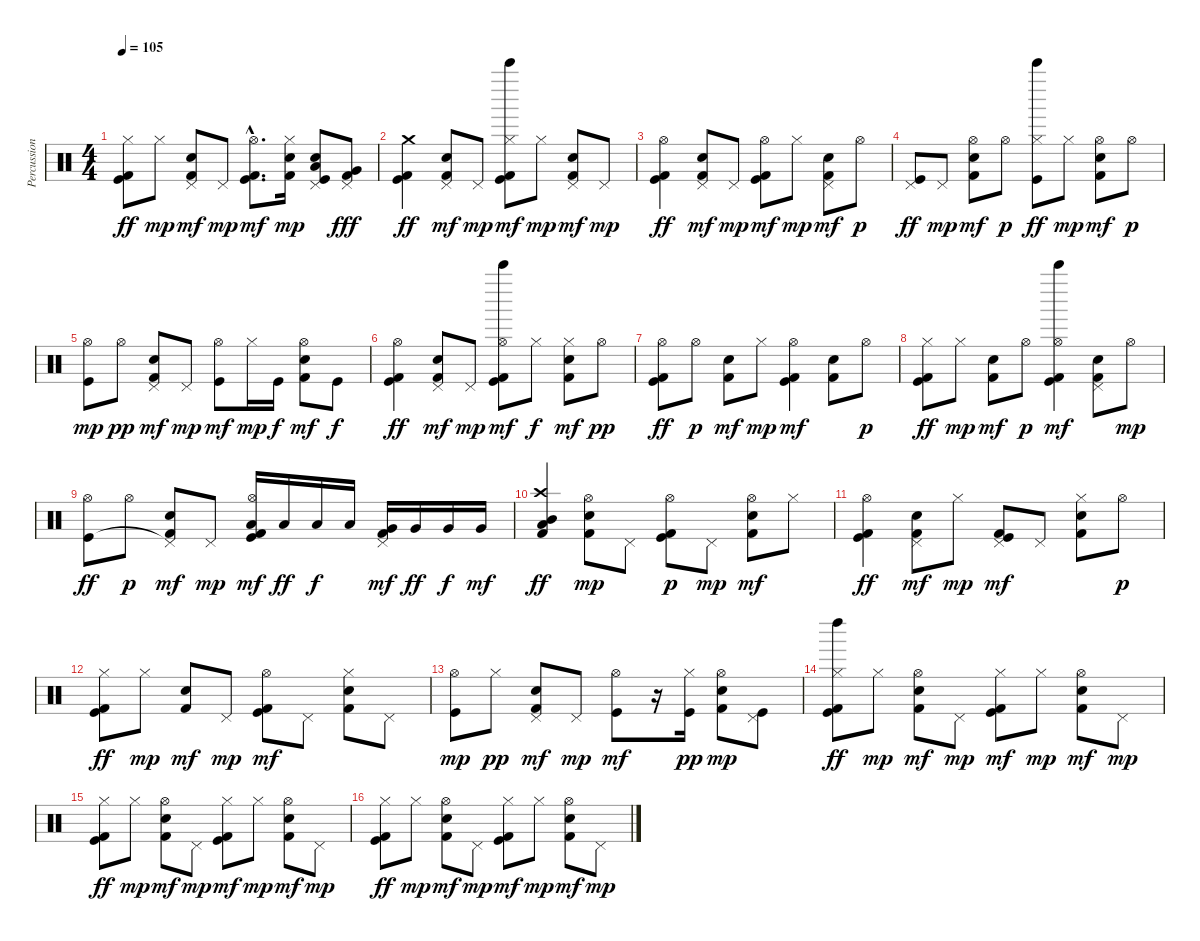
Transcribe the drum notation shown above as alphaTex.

\track ("Percussion" "Percussion") {instrument percussion}
\staff {score}
\articulation defaults
\ts (4 4)
\tempo 105
\clef neutral
\ks c
("Hi-Hat (closed)" "Kick (hit)" "Kick (hit) 2").8{dy ff} "Hi-Hat (closed)".8{dy mp} ("Electric Snare (hit)" "Pedal Hi-Hat (hit)" "Kick (hit) 2").8{dy mf} "Pedal Hi-Hat (hit)".8{dy mp} ("Hi-Hat (open)"{hac} "Kick (hit)"{hac} "Kick (hit) 2"{hac}).8{d dy mf} ("Electric Snare (hit)" "Hi-Hat (closed)" "Kick (hit) 2").16{dy mp} ("Electric Snare (hit)" "Pedal Hi-Hat (hit)" "Low Tom (hit)" "Kick (hit)").8 ("Pedal Hi-Hat (hit)" "Very Low Tom (hit)" "Kick (hit) 2").8{dy fff} |
("Crash medium (hit)" "Kick (hit)" "Kick (hit) 2").4{dy ff} ("Electric Snare (hit)" "Pedal Hi-Hat (hit)" "Kick (hit) 2").8{dy mf} "Pedal Hi-Hat (hit)".8{dy mp} ("Bell Tree (hit)" "Hi-Hat (closed)" "Kick (hit)" "Kick (hit) 2").8{dy mf} "Hi-Hat (closed)".8{dy mp} ("Electric Snare (hit)" "Pedal Hi-Hat (hit)" "Kick (hit) 2").8{dy mf} "Pedal Hi-Hat (hit)".8{dy mp} |
("Hi-Hat (open)" "Kick (hit)" "Kick (hit) 2").4{dy ff} ("Electric Snare (hit)" "Pedal Hi-Hat (hit)" "Kick (hit) 2").8{dy mf} "Pedal Hi-Hat (hit)".8{dy mp} ("Hi-Hat (open)" "Kick (hit)" "Kick (hit) 2").8{dy mf} "Hi-Hat (closed)".8{dy mp} ("Electric Snare (hit)" "Pedal Hi-Hat (hit)" "Kick (hit) 2").8{dy mf} "Hi-Hat (open)".8{dy p} |
("Pedal Hi-Hat (hit)" "Kick (hit)").8{dy ff} "Pedal Hi-Hat (hit)".8{dy mp} ("Electric Snare (hit)" "Hi-Hat (open)" "Kick (hit) 2").8{dy mf} "Hi-Hat (open)".8{dy p} ("Bell Tree (hit)" "Hi-Hat (closed)" "Kick (hit)").8{dy ff} "Hi-Hat (closed)".8{dy mp} ("Electric Snare (hit)" "Hi-Hat (open)" "Kick (hit) 2").8{dy mf} "Hi-Hat (open)".8{dy p} |
("Hi-Hat (open)" "Kick (hit)").8{dy mp} "Hi-Hat (open)".8{dy pp} ("Electric Snare (hit)" "Pedal Hi-Hat (hit)" "Kick (hit) 2").8{dy mf} "Pedal Hi-Hat (hit)".8{dy mp} ("Hi-Hat (open)" "Kick (hit)").8{dy mf} "Hi-Hat (closed)".16{dy mp} "Kick (hit)".16{dy f} ("Electric Snare (hit)" "Hi-Hat (open)" "Kick (hit) 2").8{dy mf} "Kick (hit)".8{dy f} |
("Hi-Hat (open)" "Kick (hit)" "Kick (hit) 2").4{dy ff} ("Electric Snare (hit)" "Pedal Hi-Hat (hit)" "Kick (hit) 2").8{dy mf} "Pedal Hi-Hat (hit)".8{dy mp} ("Bell Tree (hit)" "Hi-Hat (open)" "Kick (hit)" "Kick (hit) 2").8{dy mf} "Hi-Hat (closed)".8{dy f} ("Electric Snare (hit)" "Hi-Hat (closed)" "Kick (hit) 2").8{dy mf} "Hi-Hat (open)".8{dy pp} |
("Hi-Hat (open)" "Kick (hit)" "Kick (hit) 2").8{dy ff} "Hi-Hat (open)".8{dy p} ("Electric Snare (hit)" "Kick (hit) 2").8{dy mf} "Hi-Hat (closed)".8{dy mp} ("Hi-Hat (open)" "Kick (hit)" "Kick (hit) 2").4{dy mf} ("Electric Snare (hit)" "Kick (hit) 2").8 "Hi-Hat (open)".8{dy p} |
("Hi-Hat (closed)" "Kick (hit)" "Kick (hit) 2").8{dy ff} "Hi-Hat (closed)".8{dy mp} ("Electric Snare (hit)" "Kick (hit) 2").8{dy mf} "Hi-Hat (open)".8{dy p} ("Bell Tree (hit)" "Hi-Hat (open)" "Kick (hit)" "Kick (hit) 2").4{dy mf} ("Electric Snare (hit)" "Pedal Hi-Hat (hit)" "Kick (hit) 2").8 "Hi-Hat (open)".8{dy mp} |
("Hi-Hat (open)" "Kick (hit)").8{dy ff} "Hi-Hat (open)".8{dy p} ("Electric Snare (hit)" "Pedal Hi-Hat (hit)"{t} "Kick (hit) 2").8{dy mf} "Pedal Hi-Hat (hit)".8{dy mp} ("Low Tom (hit)" "Hi-Hat (open)" "Kick (hit)" "Kick (hit) 2").16{dy mf} "Low Tom (hit)".16{dy ff} "Low Tom (hit)".16{dy f} "Low Tom (hit)".16 ("Very Low Tom (hit)" "Pedal Hi-Hat (hit)" "Kick (hit) 2").16{dy mf} "Very Low Tom (hit)".16{dy ff} "Very Low Tom (hit)".16{dy f} "Very Low Tom (hit)".16{dy mf} |
("Crash high (hit)" "Mid Tom (hit)" "Low Floor Tom (hit)" "Kick (hit) 2").4{dy ff} ("Electric Snare (hit)" "Hi-Hat (open)" "Kick (hit) 2").8{dy mp} "Pedal Hi-Hat (hit)".8 ("Hi-Hat (open)" "Kick (hit)" "Kick (hit) 2").8{dy p} "Pedal Hi-Hat (hit)".8{dy mp} ("Electric Snare (hit)" "Hi-Hat (open)" "Kick (hit) 2").8{dy mf} "Hi-Hat (closed)".8 |
("Hi-Hat (open)" "Kick (hit)" "Kick (hit) 2").4{dy ff} ("Electric Snare (hit)" "Pedal Hi-Hat (hit)" "Kick (hit) 2").8{dy mf} "Hi-Hat (closed)".8{dy mp} ("Pedal Hi-Hat (hit)" "Kick (hit)" "Kick (hit) 2").8{dy mf} "Pedal Hi-Hat (hit)".8 ("Electric Snare (hit)" "Hi-Hat (closed)" "Kick (hit) 2").8 "Hi-Hat (open)".8{dy p} |
("Hi-Hat (closed)" "Kick (hit)" "Kick (hit) 2").8{dy ff} "Hi-Hat (closed)".8{dy mp} ("Electric Snare (hit)" "Kick (hit) 2").8{dy mf} "Pedal Hi-Hat (hit)".8{dy mp} ("Hi-Hat (open)" "Kick (hit)" "Kick (hit) 2").8{dy mf} "Pedal Hi-Hat (hit)".8 ("Electric Snare (hit)" "Hi-Hat (closed)" "Kick (hit) 2").8 "Pedal Hi-Hat (hit)".8 |
("Hi-Hat (open)" "Kick (hit)").8{dy mp} "Hi-Hat (closed)".8{dy pp} ("Electric Snare (hit)" "Pedal Hi-Hat (hit)" "Kick (hit) 2").8{dy mf} "Pedal Hi-Hat (hit)".8{dy mp} ("Hi-Hat (open)" "Kick (hit)").8{dy mf} r.16 ("Hi-Hat (closed)" "Kick (hit)").16{dy pp} ("Electric Snare (hit)" "Hi-Hat (open)" "Kick (hit) 2").8{dy mp} ("Pedal Hi-Hat (hit)" "Kick (hit)").8 |
("Left Maraca (hit)" "Hi-Hat (closed)" "Kick (hit)" "Kick (hit) 2").8{dy ff} "Hi-Hat (closed)".8{dy mp} ("Electric Snare (hit)" "Hi-Hat (open)" "Kick (hit) 2").8{dy mf} "Pedal Hi-Hat (hit)".8{dy mp} ("Hi-Hat (closed)" "Kick (hit)" "Kick (hit) 2").8{dy mf} "Hi-Hat (closed)".8{dy mp} ("Electric Snare (hit)" "Hi-Hat (open)" "Kick (hit) 2").8{dy mf} "Pedal Hi-Hat (hit)".8{dy mp} |
("Hi-Hat (closed)" "Kick (hit)" "Kick (hit) 2").8{dy ff} "Hi-Hat (closed)".8{dy mp} ("Electric Snare (hit)" "Hi-Hat (open)" "Kick (hit) 2").8{dy mf} "Pedal Hi-Hat (hit)".8{dy mp} ("Hi-Hat (closed)" "Kick (hit)" "Kick (hit) 2").8{dy mf} "Hi-Hat (closed)".8{dy mp} ("Electric Snare (hit)" "Hi-Hat (open)" "Kick (hit) 2").8{dy mf} "Pedal Hi-Hat (hit)".8{dy mp} |
("Hi-Hat (closed)" "Kick (hit)" "Kick (hit) 2").8{dy ff} "Hi-Hat (closed)".8{dy mp} ("Electric Snare (hit)" "Hi-Hat (open)" "Kick (hit) 2").8{dy mf} "Pedal Hi-Hat (hit)".8{dy mp} ("Hi-Hat (closed)" "Kick (hit)" "Kick (hit) 2").8{dy mf} "Hi-Hat (closed)".8{dy mp} ("Electric Snare (hit)" "Hi-Hat (open)" "Kick (hit) 2").8{dy mf} "Pedal Hi-Hat (hit)".8{dy mp}
